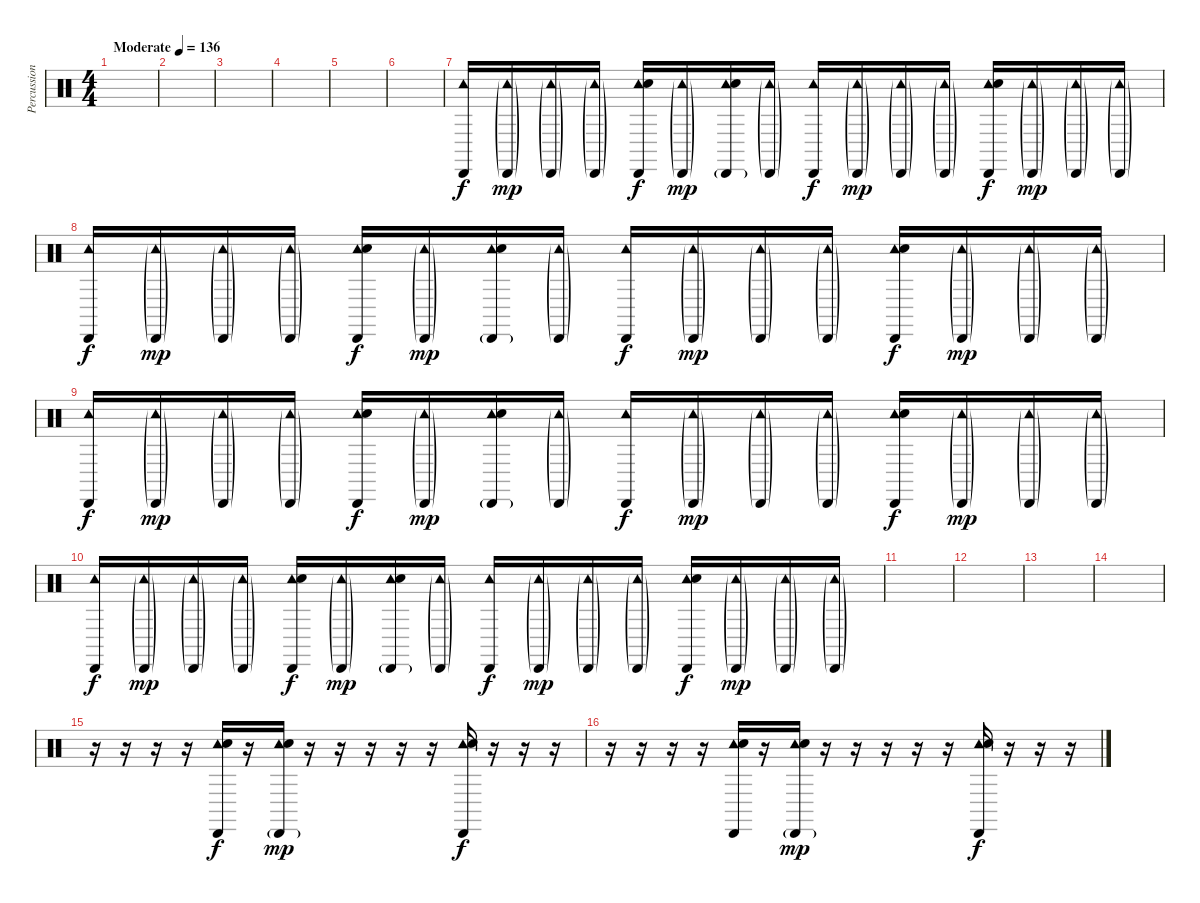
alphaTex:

\track ("Percussion (2)" "Percussion") {instrument percussion}
\staff {score}
\articulation defaults
\ts (4 4)
\tempo (136 "Moderate")
\clef neutral
\ks c
|
|
|
|
|
|
("Cabasa (hit)" "Tambourine (hit)").16 ("Cabasa (hit)"{g} "Tambourine (hit)"{g}).16{dy mp} ("Cabasa (hit)"{g} "Tambourine (hit)"{g}).16 ("Cabasa (hit)"{g} "Tambourine (hit)"{g}).16 ("Cabasa (hit)" "Tambourine (hit)" "Hand Clap (hit)").16{dy f} ("Cabasa (hit)"{g} "Tambourine (hit)"{g}).16{dy mp} ("Cabasa (hit)"{g} "Tambourine (hit)" "Hand Clap (hit)").16 ("Cabasa (hit)"{g} "Tambourine (hit)"{g}).16 ("Cabasa (hit)" "Tambourine (hit)").16{dy f} ("Cabasa (hit)"{g} "Tambourine (hit)"{g}).16{dy mp} ("Cabasa (hit)"{g} "Tambourine (hit)"{g}).16 ("Cabasa (hit)"{g} "Tambourine (hit)"{g}).16 ("Cabasa (hit)" "Tambourine (hit)" "Hand Clap (hit)").16{dy f} ("Cabasa (hit)"{g} "Tambourine (hit)"{g}).16{dy mp} ("Cabasa (hit)"{g} "Tambourine (hit)"{g}).16 ("Cabasa (hit)"{g} "Tambourine (hit)"{g}).16 |
("Cabasa (hit)" "Tambourine (hit)").16{dy f} ("Cabasa (hit)"{g} "Tambourine (hit)"{g}).16{dy mp} ("Cabasa (hit)"{g} "Tambourine (hit)"{g}).16 ("Cabasa (hit)"{g} "Tambourine (hit)"{g}).16 ("Cabasa (hit)" "Tambourine (hit)" "Hand Clap (hit)").16{dy f} ("Cabasa (hit)"{g} "Tambourine (hit)"{g}).16{dy mp} ("Cabasa (hit)"{g} "Tambourine (hit)" "Hand Clap (hit)").16 ("Cabasa (hit)"{g} "Tambourine (hit)"{g}).16 ("Cabasa (hit)" "Tambourine (hit)").16{dy f} ("Cabasa (hit)"{g} "Tambourine (hit)"{g}).16{dy mp} ("Cabasa (hit)"{g} "Tambourine (hit)"{g}).16 ("Cabasa (hit)"{g} "Tambourine (hit)"{g}).16 ("Cabasa (hit)" "Tambourine (hit)" "Hand Clap (hit)").16{dy f} ("Cabasa (hit)"{g} "Tambourine (hit)"{g}).16{dy mp} ("Cabasa (hit)"{g} "Tambourine (hit)"{g}).16 ("Cabasa (hit)"{g} "Tambourine (hit)"{g}).16 |
("Cabasa (hit)" "Tambourine (hit)").16{dy f} ("Cabasa (hit)"{g} "Tambourine (hit)"{g}).16{dy mp} ("Cabasa (hit)"{g} "Tambourine (hit)"{g}).16 ("Cabasa (hit)"{g} "Tambourine (hit)"{g}).16 ("Cabasa (hit)" "Tambourine (hit)" "Hand Clap (hit)").16{dy f} ("Cabasa (hit)"{g} "Tambourine (hit)"{g}).16{dy mp} ("Cabasa (hit)"{g} "Tambourine (hit)" "Hand Clap (hit)").16 ("Cabasa (hit)"{g} "Tambourine (hit)"{g}).16 ("Cabasa (hit)" "Tambourine (hit)").16{dy f} ("Cabasa (hit)"{g} "Tambourine (hit)"{g}).16{dy mp} ("Cabasa (hit)"{g} "Tambourine (hit)"{g}).16 ("Cabasa (hit)"{g} "Tambourine (hit)"{g}).16 ("Cabasa (hit)" "Tambourine (hit)" "Hand Clap (hit)").16{dy f} ("Cabasa (hit)"{g} "Tambourine (hit)"{g}).16{dy mp} ("Cabasa (hit)"{g} "Tambourine (hit)"{g}).16 ("Cabasa (hit)"{g} "Tambourine (hit)"{g}).16 |
("Cabasa (hit)" "Tambourine (hit)").16{dy f} ("Cabasa (hit)"{g} "Tambourine (hit)"{g}).16{dy mp} ("Cabasa (hit)"{g} "Tambourine (hit)"{g}).16 ("Cabasa (hit)"{g} "Tambourine (hit)"{g}).16 ("Cabasa (hit)" "Tambourine (hit)" "Hand Clap (hit)").16{dy f} ("Cabasa (hit)"{g} "Tambourine (hit)"{g}).16{dy mp} ("Cabasa (hit)"{g} "Tambourine (hit)" "Hand Clap (hit)").16 ("Cabasa (hit)"{g} "Tambourine (hit)"{g}).16 ("Cabasa (hit)" "Tambourine (hit)").16{dy f} ("Cabasa (hit)"{g} "Tambourine (hit)"{g}).16{dy mp} ("Cabasa (hit)"{g} "Tambourine (hit)"{g}).16 ("Cabasa (hit)"{g} "Tambourine (hit)"{g}).16 ("Cabasa (hit)" "Tambourine (hit)" "Hand Clap (hit)").16{dy f} ("Cabasa (hit)"{g} "Tambourine (hit)"{g}).16{dy mp} ("Cabasa (hit)"{g} "Tambourine (hit)"{g}).16 ("Cabasa (hit)"{g} "Tambourine (hit)"{g}).16 |
|
|
|
|
r.16 r.16 r.16 r.16 ("Cabasa (hit)" "Tambourine (hit)" "Hand Clap (hit)").16{dy f} r.16 ("Cabasa (hit)"{g} "Tambourine (hit)" "Hand Clap (hit)").16{dy mp} r.16 r.16 r.16 r.16 r.16 ("Cabasa (hit)" "Tambourine (hit)" "Hand Clap (hit)").16{dy f} r.16 r.16 r.16 |
r.16 r.16 r.16 r.16 ("Cabasa (hit)" "Tambourine (hit)" "Hand Clap (hit)").16 r.16 ("Cabasa (hit)"{g} "Tambourine (hit)" "Hand Clap (hit)").16{dy mp} r.16 r.16 r.16 r.16 r.16 ("Cabasa (hit)" "Tambourine (hit)" "Hand Clap (hit)").16{dy f} r.16 r.16 r.16
